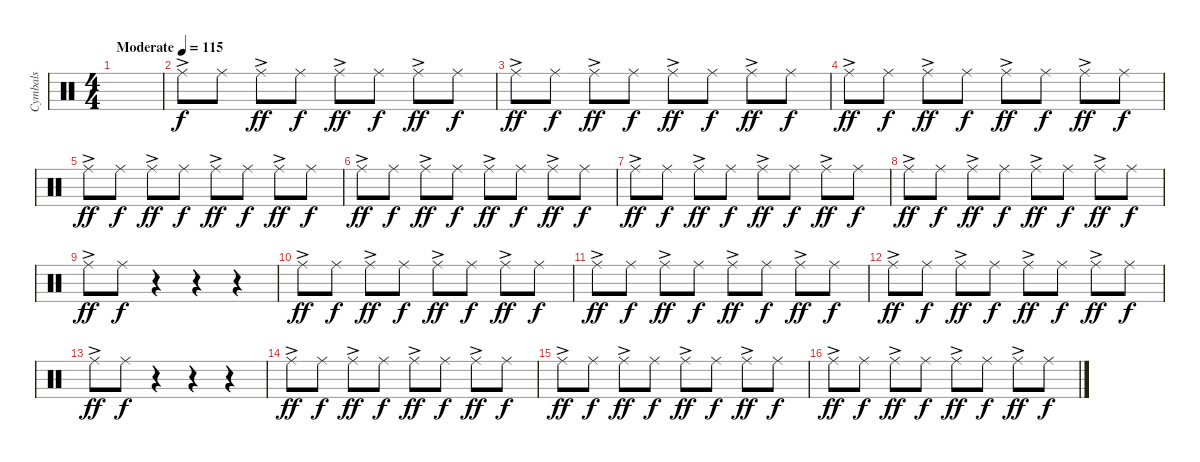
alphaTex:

\track ("Cymbals" "Cymbals") {instrument percussion}
\staff {score}
\articulation defaults
\ts (4 4)
\tempo (115 "Moderate")
\clef neutral
\ks c
|
"Ride (middle)"{ac}.8 "Ride (middle)".8{dy f} "Ride (middle)"{ac}.8{dy ff} "Ride (middle)".8{dy f} "Ride (middle)"{ac}.8{dy ff} "Ride (middle)".8{dy f} "Ride (middle)"{ac}.8{dy ff} "Ride (middle)".8{dy f} |
"Ride (middle)"{ac}.8{dy ff} "Ride (middle)".8{dy f} "Ride (middle)"{ac}.8{dy ff} "Ride (middle)".8{dy f} "Ride (middle)"{ac}.8{dy ff} "Ride (middle)".8{dy f} "Ride (middle)"{ac}.8{dy ff} "Ride (middle)".8{dy f} |
"Ride (middle)"{ac}.8{dy ff} "Ride (middle)".8{dy f} "Ride (middle)"{ac}.8{dy ff} "Ride (middle)".8{dy f} "Ride (middle)"{ac}.8{dy ff} "Ride (middle)".8{dy f} "Ride (middle)"{ac}.8{dy ff} "Ride (middle)".8{dy f} |
"Ride (middle)"{ac}.8{dy ff} "Ride (middle)".8{dy f} "Ride (middle)"{ac}.8{dy ff} "Ride (middle)".8{dy f} "Ride (middle)"{ac}.8{dy ff} "Ride (middle)".8{dy f} "Ride (middle)"{ac}.8{dy ff} "Ride (middle)".8{dy f} |
"Ride (middle)"{ac}.8{dy ff} "Ride (middle)".8{dy f} "Ride (middle)"{ac}.8{dy ff} "Ride (middle)".8{dy f} "Ride (middle)"{ac}.8{dy ff} "Ride (middle)".8{dy f} "Ride (middle)"{ac}.8{dy ff} "Ride (middle)".8{dy f} |
"Ride (middle)"{ac}.8{dy ff} "Ride (middle)".8{dy f} "Ride (middle)"{ac}.8{dy ff} "Ride (middle)".8{dy f} "Ride (middle)"{ac}.8{dy ff} "Ride (middle)".8{dy f} "Ride (middle)"{ac}.8{dy ff} "Ride (middle)".8{dy f} |
"Ride (middle)"{ac}.8{dy ff} "Ride (middle)".8{dy f} "Ride (middle)"{ac}.8{dy ff} "Ride (middle)".8{dy f} "Ride (middle)"{ac}.8{dy ff} "Ride (middle)".8{dy f} "Ride (middle)"{ac}.8{dy ff} "Ride (middle)".8{dy f} |
"Ride (middle)"{ac}.8{dy ff} "Ride (middle)".8{dy f} r.4 r.4 r.4 |
"Ride (middle)"{ac}.8{dy ff} "Ride (middle)".8{dy f} "Ride (middle)"{ac}.8{dy ff} "Ride (middle)".8{dy f} "Ride (middle)"{ac}.8{dy ff} "Ride (middle)".8{dy f} "Ride (middle)"{ac}.8{dy ff} "Ride (middle)".8{dy f} |
"Ride (middle)"{ac}.8{dy ff} "Ride (middle)".8{dy f} "Ride (middle)"{ac}.8{dy ff} "Ride (middle)".8{dy f} "Ride (middle)"{ac}.8{dy ff} "Ride (middle)".8{dy f} "Ride (middle)"{ac}.8{dy ff} "Ride (middle)".8{dy f} |
"Ride (middle)"{ac}.8{dy ff} "Ride (middle)".8{dy f} "Ride (middle)"{ac}.8{dy ff} "Ride (middle)".8{dy f} "Ride (middle)"{ac}.8{dy ff} "Ride (middle)".8{dy f} "Ride (middle)"{ac}.8{dy ff} "Ride (middle)".8{dy f} |
"Ride (middle)"{ac}.8{dy ff} "Ride (middle)".8{dy f} r.4 r.4 r.4 |
"Ride (middle)"{ac}.8{dy ff} "Ride (middle)".8{dy f} "Ride (middle)"{ac}.8{dy ff} "Ride (middle)".8{dy f} "Ride (middle)"{ac}.8{dy ff} "Ride (middle)".8{dy f} "Ride (middle)"{ac}.8{dy ff} "Ride (middle)".8{dy f} |
"Ride (middle)"{ac}.8{dy ff} "Ride (middle)".8{dy f} "Ride (middle)"{ac}.8{dy ff} "Ride (middle)".8{dy f} "Ride (middle)"{ac}.8{dy ff} "Ride (middle)".8{dy f} "Ride (middle)"{ac}.8{dy ff} "Ride (middle)".8{dy f} |
"Ride (middle)"{ac}.8{dy ff} "Ride (middle)".8{dy f} "Ride (middle)"{ac}.8{dy ff} "Ride (middle)".8{dy f} "Ride (middle)"{ac}.8{dy ff} "Ride (middle)".8{dy f} "Ride (middle)"{ac}.8{dy ff} "Ride (middle)".8{dy f}
